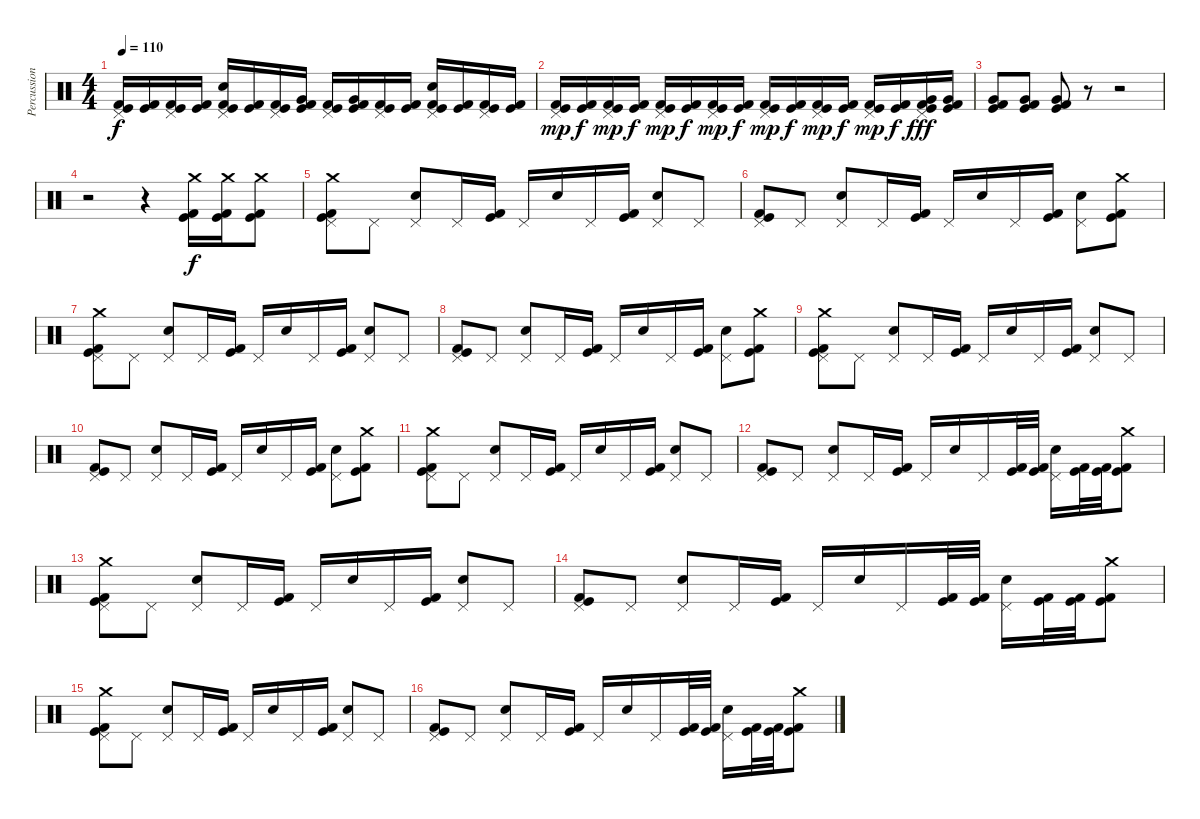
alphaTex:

\track ("Percussions" "Percussion") {instrument percussion}
\staff {score}
\articulation defaults
\ts (4 4)
\tempo 110
\clef neutral
\ks c
("Pedal Hi-Hat (hit)" "Kick (hit)" "Kick (hit) 2").16{dy f} ("Kick (hit)" "Kick (hit) 2").16 ("Pedal Hi-Hat (hit)" "Kick (hit)" "Kick (hit) 2").16 ("Kick (hit)" "Kick (hit) 2").16 ("Pedal Hi-Hat (hit)" "Electric Snare (hit)" "Kick (hit)" "Kick (hit) 2").16 ("Kick (hit)" "Kick (hit) 2").16 ("Pedal Hi-Hat (hit)" "Kick (hit)" "Kick (hit) 2").16 ("Very Low Tom (hit)" "Kick (hit)" "Kick (hit) 2").16 ("Pedal Hi-Hat (hit)" "Kick (hit)" "Kick (hit) 2").16 ("Very Low Tom (hit)" "Kick (hit)" "Kick (hit) 2").16 ("Pedal Hi-Hat (hit)" "Kick (hit)" "Kick (hit) 2").16 ("Kick (hit)" "Kick (hit) 2").16 ("Pedal Hi-Hat (hit)" "Electric Snare (hit)" "Kick (hit)" "Kick (hit) 2").16 ("Kick (hit)" "Kick (hit) 2").16 ("Pedal Hi-Hat (hit)" "Kick (hit)" "Kick (hit) 2").16 ("Kick (hit)" "Kick (hit) 2").16 |
("Pedal Hi-Hat (hit)" "Kick (hit)" "Kick (hit) 2").16{dy mp} ("Kick (hit)" "Kick (hit) 2").16{dy f} ("Pedal Hi-Hat (hit)" "Kick (hit)" "Kick (hit) 2").16{dy mp} ("Kick (hit)" "Kick (hit) 2").16{dy f} ("Pedal Hi-Hat (hit)" "Kick (hit)" "Kick (hit) 2").16{dy mp} ("Kick (hit)" "Kick (hit) 2").16{dy f} ("Pedal Hi-Hat (hit)" "Kick (hit)" "Kick (hit) 2").16{dy mp} ("Kick (hit)" "Kick (hit) 2").16{dy f} ("Pedal Hi-Hat (hit)" "Kick (hit)" "Kick (hit) 2").16{dy mp} ("Kick (hit)" "Kick (hit) 2").16{dy f} ("Pedal Hi-Hat (hit)" "Kick (hit)" "Kick (hit) 2").16{dy mp} ("Kick (hit)" "Kick (hit) 2").16{dy f} ("Pedal Hi-Hat (hit)" "Kick (hit)" "Kick (hit) 2").16{dy mp} ("Kick (hit)" "Kick (hit) 2").16{dy f} ("Pedal Hi-Hat (hit)" "Very Low Tom (hit)" "Kick (hit)" "Kick (hit) 2").16{dy fff} ("Very Low Tom (hit)" "Kick (hit)" "Kick (hit) 2").16 |
("Very Low Tom (hit)" "Kick (hit)" "Kick (hit) 2").8 ("Very Low Tom (hit)" "Kick (hit)" "Kick (hit) 2").8 ("Very Low Tom (hit)" "Kick (hit)" "Kick (hit) 2").8 r.8 r.2 |
r.2 r.4 ("Crash medium (hit)" "Kick (hit)" "Kick (hit) 2").16{dy f} ("Crash medium (hit)" "Kick (hit)" "Kick (hit) 2").16 ("Crash medium (hit)" "Kick (hit)" "Kick (hit) 2").8 |
("Crash medium (hit)" "Pedal Hi-Hat (hit)" "Kick (hit)" "Kick (hit) 2").8 "Pedal Hi-Hat (hit)".8 ("Pedal Hi-Hat (hit)" "Electric Snare (hit)").8 "Pedal Hi-Hat (hit)".16 ("Kick (hit)" "Kick (hit) 2").16 "Pedal Hi-Hat (hit)".16 "Electric Snare (hit)".16 "Pedal Hi-Hat (hit)".16 ("Kick (hit)" "Kick (hit) 2").16 ("Pedal Hi-Hat (hit)" "Electric Snare (hit)").8 "Pedal Hi-Hat (hit)".8 |
("Pedal Hi-Hat (hit)" "Kick (hit)" "Kick (hit) 2").8 "Pedal Hi-Hat (hit)".8 ("Pedal Hi-Hat (hit)" "Electric Snare (hit)").8 "Pedal Hi-Hat (hit)".16 ("Kick (hit)" "Kick (hit) 2").16 "Pedal Hi-Hat (hit)".16 "Electric Snare (hit)".16 "Pedal Hi-Hat (hit)".16 ("Kick (hit)" "Kick (hit) 2").16 ("Pedal Hi-Hat (hit)" "Electric Snare (hit)").8 ("Crash medium (hit)" "Kick (hit)" "Kick (hit) 2").8 |
("Crash medium (hit)" "Pedal Hi-Hat (hit)" "Kick (hit)" "Kick (hit) 2").8 "Pedal Hi-Hat (hit)".8 ("Pedal Hi-Hat (hit)" "Electric Snare (hit)").8 "Pedal Hi-Hat (hit)".16 ("Kick (hit)" "Kick (hit) 2").16 "Pedal Hi-Hat (hit)".16 "Electric Snare (hit)".16 "Pedal Hi-Hat (hit)".16 ("Kick (hit)" "Kick (hit) 2").16 ("Pedal Hi-Hat (hit)" "Electric Snare (hit)").8 "Pedal Hi-Hat (hit)".8 |
("Pedal Hi-Hat (hit)" "Kick (hit)" "Kick (hit) 2").8 "Pedal Hi-Hat (hit)".8 ("Pedal Hi-Hat (hit)" "Electric Snare (hit)").8 "Pedal Hi-Hat (hit)".16 ("Kick (hit)" "Kick (hit) 2").16 "Pedal Hi-Hat (hit)".16 "Electric Snare (hit)".16 "Pedal Hi-Hat (hit)".16 ("Kick (hit)" "Kick (hit) 2").16 ("Pedal Hi-Hat (hit)" "Electric Snare (hit)").8 ("Crash medium (hit)" "Kick (hit)" "Kick (hit) 2").8 |
("Crash medium (hit)" "Pedal Hi-Hat (hit)" "Kick (hit)" "Kick (hit) 2").8 "Pedal Hi-Hat (hit)".8 ("Pedal Hi-Hat (hit)" "Electric Snare (hit)").8 "Pedal Hi-Hat (hit)".16 ("Kick (hit)" "Kick (hit) 2").16 "Pedal Hi-Hat (hit)".16 "Electric Snare (hit)".16 "Pedal Hi-Hat (hit)".16 ("Kick (hit)" "Kick (hit) 2").16 ("Pedal Hi-Hat (hit)" "Electric Snare (hit)").8 "Pedal Hi-Hat (hit)".8 |
("Pedal Hi-Hat (hit)" "Kick (hit)" "Kick (hit) 2").8 "Pedal Hi-Hat (hit)".8 ("Pedal Hi-Hat (hit)" "Electric Snare (hit)").8 "Pedal Hi-Hat (hit)".16 ("Kick (hit)" "Kick (hit) 2").16 "Pedal Hi-Hat (hit)".16 "Electric Snare (hit)".16 "Pedal Hi-Hat (hit)".16 ("Kick (hit)" "Kick (hit) 2").16 ("Pedal Hi-Hat (hit)" "Electric Snare (hit)").8 ("Crash medium (hit)" "Kick (hit)" "Kick (hit) 2").8 |
("Crash medium (hit)" "Pedal Hi-Hat (hit)" "Kick (hit)" "Kick (hit) 2").8 "Pedal Hi-Hat (hit)".8 ("Pedal Hi-Hat (hit)" "Electric Snare (hit)").8 "Pedal Hi-Hat (hit)".16 ("Kick (hit)" "Kick (hit) 2").16 "Pedal Hi-Hat (hit)".16 "Electric Snare (hit)".16 "Pedal Hi-Hat (hit)".16 ("Kick (hit)" "Kick (hit) 2").16 ("Pedal Hi-Hat (hit)" "Electric Snare (hit)").8 "Pedal Hi-Hat (hit)".8 |
("Pedal Hi-Hat (hit)" "Kick (hit)" "Kick (hit) 2").8 "Pedal Hi-Hat (hit)".8 ("Pedal Hi-Hat (hit)" "Electric Snare (hit)").8 "Pedal Hi-Hat (hit)".16 ("Kick (hit)" "Kick (hit) 2").16 "Pedal Hi-Hat (hit)".16 "Electric Snare (hit)".16 "Pedal Hi-Hat (hit)".16 ("Kick (hit)" "Kick (hit) 2").32 ("Kick (hit)" "Kick (hit) 2").32 ("Pedal Hi-Hat (hit)" "Electric Snare (hit)").16 ("Kick (hit)" "Kick (hit) 2").32 ("Kick (hit)" "Kick (hit) 2").32 ("Crash medium (hit)" "Kick (hit)" "Kick (hit) 2").8 |
("Crash medium (hit)" "Pedal Hi-Hat (hit)" "Kick (hit)" "Kick (hit) 2").8 "Pedal Hi-Hat (hit)".8 ("Pedal Hi-Hat (hit)" "Electric Snare (hit)").8 "Pedal Hi-Hat (hit)".16 ("Kick (hit)" "Kick (hit) 2").16 "Pedal Hi-Hat (hit)".16 "Electric Snare (hit)".16 "Pedal Hi-Hat (hit)".16 ("Kick (hit)" "Kick (hit) 2").16 ("Pedal Hi-Hat (hit)" "Electric Snare (hit)").8 "Pedal Hi-Hat (hit)".8 |
("Pedal Hi-Hat (hit)" "Kick (hit)" "Kick (hit) 2").8 "Pedal Hi-Hat (hit)".8 ("Pedal Hi-Hat (hit)" "Electric Snare (hit)").8 "Pedal Hi-Hat (hit)".16 ("Kick (hit)" "Kick (hit) 2").16 "Pedal Hi-Hat (hit)".16 "Electric Snare (hit)".16 "Pedal Hi-Hat (hit)".16 ("Kick (hit)" "Kick (hit) 2").32 ("Kick (hit)" "Kick (hit) 2").32 ("Pedal Hi-Hat (hit)" "Electric Snare (hit)").16 ("Kick (hit)" "Kick (hit) 2").32 ("Kick (hit)" "Kick (hit) 2").32 ("Crash medium (hit)" "Kick (hit)" "Kick (hit) 2").8 |
("Crash medium (hit)" "Pedal Hi-Hat (hit)" "Kick (hit)" "Kick (hit) 2").8 "Pedal Hi-Hat (hit)".8 ("Pedal Hi-Hat (hit)" "Electric Snare (hit)").8 "Pedal Hi-Hat (hit)".16 ("Kick (hit)" "Kick (hit) 2").16 "Pedal Hi-Hat (hit)".16 "Electric Snare (hit)".16 "Pedal Hi-Hat (hit)".16 ("Kick (hit)" "Kick (hit) 2").16 ("Pedal Hi-Hat (hit)" "Electric Snare (hit)").8 "Pedal Hi-Hat (hit)".8 |
("Pedal Hi-Hat (hit)" "Kick (hit)" "Kick (hit) 2").8 "Pedal Hi-Hat (hit)".8 ("Pedal Hi-Hat (hit)" "Electric Snare (hit)").8 "Pedal Hi-Hat (hit)".16 ("Kick (hit)" "Kick (hit) 2").16 "Pedal Hi-Hat (hit)".16 "Electric Snare (hit)".16 "Pedal Hi-Hat (hit)".16 ("Kick (hit)" "Kick (hit) 2").32 ("Kick (hit)" "Kick (hit) 2").32 ("Pedal Hi-Hat (hit)" "Electric Snare (hit)").16 ("Kick (hit)" "Kick (hit) 2").32 ("Kick (hit)" "Kick (hit) 2").32 ("Crash medium (hit)" "Kick (hit)" "Kick (hit) 2").8
